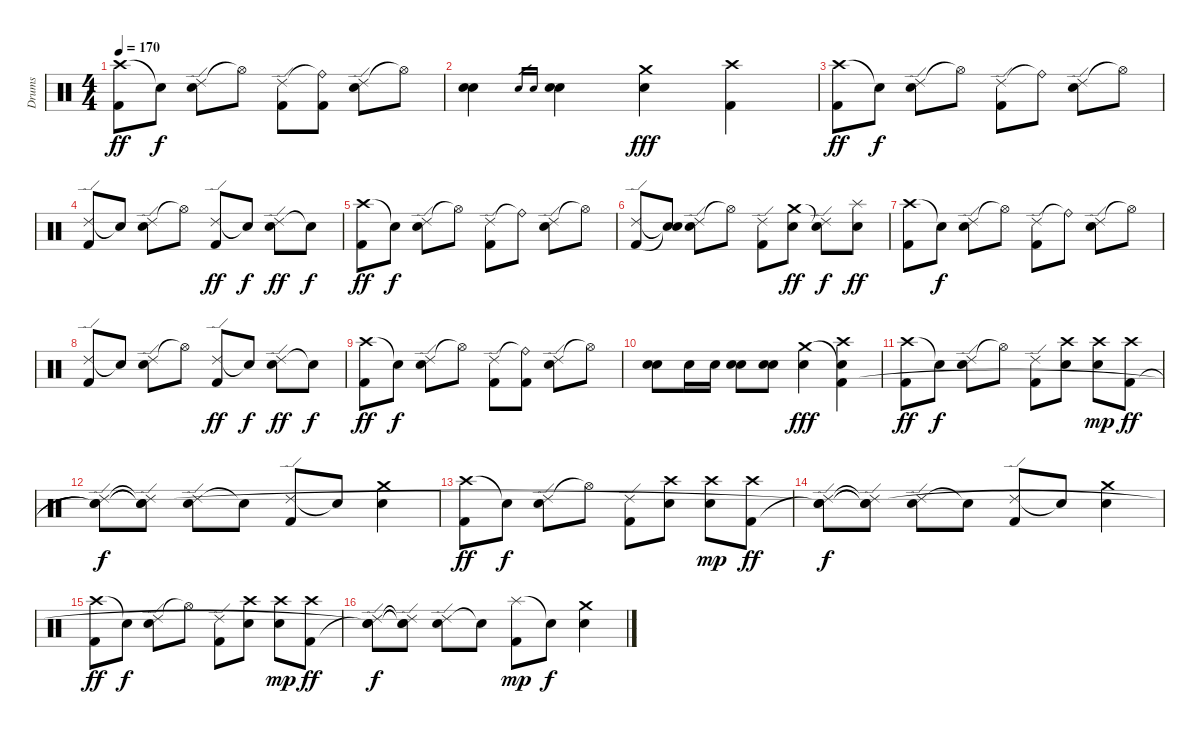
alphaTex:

\track ("Drums" "Drums") {instrument percussion}
\staff {score}
\articulation defaults
\ts (4 4)
\tempo 170
\clef neutral
\ks c
("Crash high (hit)" "Kick (hit) 2").8{dy ff} "Snare (hit)"{t}.8{dy f} ("Ride (edge) 2" "Snare (hit) 2").8 "Hi-Hat (open)"{t}.8 ("Ride (edge) 2" "Kick (hit) 2").8 ("Ride (bell)"{t} "Kick (hit) 2").8 ("Ride (edge) 2" "Snare (hit) 2").8 "Hi-Hat (open)"{t}.8 |
("Snare (hit) 2" "Electric Snare (hit)").4 "Snare (hit) 2".16{gr} "Electric Snare (hit)".16{gr} ("Snare (hit) 2" "Electric Snare (hit)").4 ("Crash medium (hit)" "Snare (hit) 2").4{dy fff} ("Crash high (hit)" "Kick (hit) 2").4 |
("Crash high (hit)" "Kick (hit) 2").8{dy ff} "Snare (hit)"{t}.8{dy f} ("Ride (edge) 2" "Snare (hit) 2").8 "Hi-Hat (open)"{t}.8 ("Ride (edge) 2" "Kick (hit) 2").8 "Ride (bell)"{t}.8 ("Ride (edge) 2" "Snare (hit) 2").8 "Hi-Hat (open)"{t}.8 |
("Ride (edge) 2" "Kick (hit) 2").8 "Snare (hit)"{t}.8 ("Ride (edge) 2" "Snare (hit) 2").8 "Hi-Hat (open)"{t}.8 ("Ride (edge) 2" "Kick (hit) 2").8{dy ff} "Snare (hit)"{t}.8{dy f} ("Ride (edge) 2" "Snare (hit) 2").8{dy ff} "Snare (hit)"{t}.8{dy f} |
("Crash high (hit)" "Kick (hit) 2").8{dy ff} "Snare (hit)"{t}.8{dy f} ("Ride (edge) 2" "Snare (hit) 2").8 "Hi-Hat (open)"{t}.8 ("Ride (edge) 2" "Kick (hit) 2").8 "Ride (bell)"{t}.8 ("Ride (edge) 2" "Snare (hit) 2").8 "Hi-Hat (open)"{t}.8 |
("Ride (edge) 2" "Kick (hit) 2").8 ("Snare (hit)"{t} "Snare (hit)"{t}).8 ("Ride (edge) 2" "Snare (hit) 2").8 "Hi-Hat (open)"{t}.8 ("Ride (edge) 2" "Kick (hit) 2").8 ("Crash medium (hit)" "Snare (hit) 2").8{dy ff} ("Snare (hit)"{t} "Ride (edge) 2").8{dy f} ("Splash (hit)" "Snare (hit) 2").8{dy ff} |
("Crash high (hit)" "Kick (hit) 2").8 "Snare (hit)"{t}.8{dy f} ("Ride (edge) 2" "Snare (hit) 2").8 "Hi-Hat (open)"{t}.8 ("Ride (edge) 2" "Kick (hit) 2").8 "Ride (bell)"{t}.8 ("Ride (edge) 2" "Snare (hit) 2").8 "Hi-Hat (open)"{t}.8 |
("Ride (edge) 2" "Kick (hit) 2").8 "Snare (hit)"{t}.8 ("Ride (edge) 2" "Snare (hit) 2").8 "Hi-Hat (open)"{t}.8 ("Ride (edge) 2" "Kick (hit) 2").8{dy ff} "Snare (hit)"{t}.8{dy f} ("Ride (edge) 2" "Snare (hit) 2").8{dy ff} "Snare (hit)"{t}.8{dy f} |
("Crash high (hit)" "Kick (hit) 2").8{dy ff} "Snare (hit)"{t}.8{dy f} ("Ride (edge) 2" "Snare (hit) 2").8 "Hi-Hat (open)"{t}.8 ("Ride (edge) 2" "Kick (hit) 2").8 ("Ride (bell)"{t} "Kick (hit) 2").8 ("Ride (edge) 2" "Snare (hit) 2").8 "Hi-Hat (open)"{t}.8 |
("Snare (hit) 2" "Electric Snare (hit)").8 "Snare (hit) 2".16 "Snare (hit) 2".16 ("Snare (hit) 2" "Electric Snare (hit)").8 ("Snare (hit) 2" "Electric Snare (hit)").8 ("Crash medium (hit)" "Snare (hit) 2").4{dy fff} ("Snare (hit)"{t} "Crash high (hit)" "Kick (hit) 2").4 |
("Crash high (hit)" "Kick (hit) 2").8{dy ff} "Snare (hit)"{t}.8{dy f} ("Ride (edge) 2" "Snare (hit) 2").8 "Hi-Hat (open)"{t}.8 ("Ride (edge) 2" "Kick (hit) 2").8 ("Crash high (hit)" "Snare (hit) 2").8 ("Crash high (hit)" "Snare (hit) 2").8{dy mp} ("Crash high (hit)" "Kick (hit) 2").8{dy ff} |
("Ride (edge) 2" "Snare (hit)"{t} "Snare (hit)"{t}).8{dy f} ("Ride (edge) 2"{t} "Snare (hit)"{t} "Snare (hit)"{t}).8 ("Ride (edge) 2" "Snare (hit) 2").8 "Snare (hit)"{t}.8 ("Ride (edge) 2" "Kick (hit) 2").8 "Snare (hit)"{t}.8 ("Crash medium (hit)" "Snare (hit) 2").4 |
("Crash high (hit)" "Kick (hit) 2").8{dy ff} "Snare (hit)"{t}.8{dy f} ("Ride (edge) 2" "Snare (hit) 2").8 "Hi-Hat (open)"{t}.8 ("Ride (edge) 2" "Kick (hit) 2").8 ("Crash high (hit)" "Snare (hit) 2").8 ("Crash high (hit)" "Snare (hit) 2").8{dy mp} ("Crash high (hit)" "Kick (hit) 2").8{dy ff} |
("Ride (edge) 2" "Snare (hit)"{t} "Snare (hit)"{t}).8{dy f} ("Ride (edge) 2"{t} "Snare (hit)"{t} "Snare (hit)"{t}).8 ("Ride (edge) 2" "Snare (hit) 2").8 "Snare (hit)"{t}.8 ("Ride (edge) 2" "Kick (hit) 2").8 "Snare (hit)"{t}.8 ("Crash medium (hit)" "Snare (hit) 2").4 |
("Crash high (hit)" "Kick (hit) 2").8{dy ff} "Snare (hit)"{t}.8{dy f} ("Ride (edge) 2" "Snare (hit) 2").8 "Hi-Hat (open)"{t}.8 ("Ride (edge) 2" "Kick (hit) 2").8 ("Crash high (hit)" "Snare (hit) 2").8 ("Crash high (hit)" "Snare (hit) 2").8{dy mp} ("Crash high (hit)" "Kick (hit) 2").8{dy ff} |
("Ride (edge) 2" "Snare (hit)"{t} "Snare (hit)"{t}).8{dy f} ("Ride (edge) 2"{t} "Snare (hit)"{t} "Snare (hit)"{t}).8 ("Ride (edge) 2" "Snare (hit) 2").8 "Snare (hit)"{t}.8 ("Splash (hit)" "Kick (hit) 2").8{dy mp} "Snare (hit)"{t}.8{dy f} ("Crash medium (hit)" "Snare (hit) 2").4
